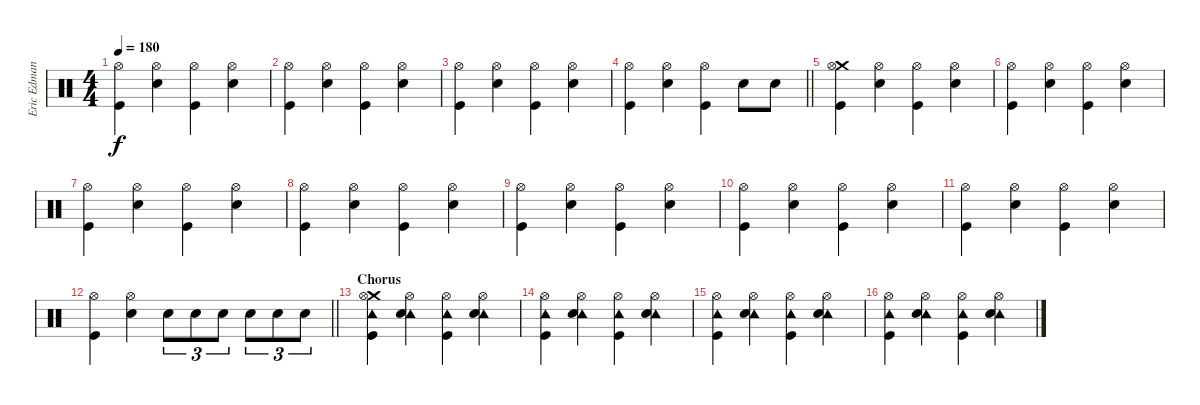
\track ("Eric Edman - Drums" "Eric Edman") {instrument percussion}
\staff {score}
\articulation defaults
\ts (4 4)
\tempo 180
\clef neutral
\ks c
("Hi-Hat (open)" "Kick (hit)").4{dy f} ("Hi-Hat (open)" "Snare (hit) 2").4 ("Hi-Hat (open)" "Kick (hit)").4 ("Hi-Hat (open)" "Snare (hit) 2").4 |
("Hi-Hat (open)" "Kick (hit)").4 ("Hi-Hat (open)" "Snare (hit) 2").4 ("Hi-Hat (open)" "Kick (hit)").4 ("Hi-Hat (open)" "Snare (hit) 2").4 |
("Hi-Hat (open)" "Kick (hit)").4 ("Hi-Hat (open)" "Snare (hit) 2").4 ("Hi-Hat (open)" "Kick (hit)").4 ("Hi-Hat (open)" "Snare (hit) 2").4 |
\barLineRight lightlight
("Hi-Hat (open)" "Kick (hit)").4 ("Hi-Hat (open)" "Snare (hit) 2").4 ("Hi-Hat (open)" "Kick (hit)").4 "Snare (hit) 2".8 "Snare (hit) 2".8 |
("Crash medium (hit)" "Hi-Hat (open)" "Kick (hit)").4 ("Hi-Hat (open)" "Snare (hit) 2").4 ("Hi-Hat (open)" "Kick (hit)").4 ("Hi-Hat (open)" "Snare (hit) 2").4 |
("Hi-Hat (open)" "Kick (hit)").4 ("Hi-Hat (open)" "Snare (hit) 2").4 ("Hi-Hat (open)" "Kick (hit)").4 ("Hi-Hat (open)" "Snare (hit) 2").4 |
("Hi-Hat (open)" "Kick (hit)").4 ("Hi-Hat (open)" "Snare (hit) 2").4 ("Hi-Hat (open)" "Kick (hit)").4 ("Hi-Hat (open)" "Snare (hit) 2").4 |
("Hi-Hat (open)" "Kick (hit)").4 ("Hi-Hat (open)" "Snare (hit) 2").4 ("Hi-Hat (open)" "Kick (hit)").4 ("Hi-Hat (open)" "Snare (hit) 2").4 |
("Hi-Hat (open)" "Kick (hit)").4 ("Hi-Hat (open)" "Snare (hit) 2").4 ("Hi-Hat (open)" "Kick (hit)").4 ("Hi-Hat (open)" "Snare (hit) 2").4 |
("Hi-Hat (open)" "Kick (hit)").4 ("Hi-Hat (open)" "Snare (hit) 2").4 ("Hi-Hat (open)" "Kick (hit)").4 ("Hi-Hat (open)" "Snare (hit) 2").4 |
("Hi-Hat (open)" "Kick (hit)").4 ("Hi-Hat (open)" "Snare (hit) 2").4 ("Hi-Hat (open)" "Kick (hit)").4 ("Hi-Hat (open)" "Snare (hit) 2").4 |
\barLineRight lightlight
("Hi-Hat (open)" "Kick (hit)").4 ("Hi-Hat (open)" "Snare (hit) 2").4 "Snare (hit) 2".8{tu (3 2)} "Snare (hit) 2".8{tu (3 2)} "Snare (hit) 2".8{tu (3 2)} "Snare (hit) 2".8{tu (3 2)} "Snare (hit) 2".8{tu (3 2)} "Snare (hit) 2".8{tu (3 2)} |
\section ("" "Chorus")
("Crash medium (hit)" "Tambourine (hit)" "Kick (hit)" "Hi-Hat (open)").4 ("Tambourine (hit)" "Snare (hit) 2" "Hi-Hat (open)").4 ("Tambourine (hit)" "Kick (hit)" "Hi-Hat (open)").4 ("Tambourine (hit)" "Snare (hit) 2" "Hi-Hat (open)").4 |
("Tambourine (hit)" "Kick (hit)" "Hi-Hat (open)").4 ("Tambourine (hit)" "Snare (hit) 2" "Hi-Hat (open)").4 ("Tambourine (hit)" "Kick (hit)" "Hi-Hat (open)").4 ("Tambourine (hit)" "Snare (hit) 2" "Hi-Hat (open)").4 |
("Tambourine (hit)" "Kick (hit)" "Hi-Hat (open)").4 ("Tambourine (hit)" "Snare (hit) 2" "Hi-Hat (open)").4 ("Tambourine (hit)" "Kick (hit)" "Hi-Hat (open)").4 ("Tambourine (hit)" "Snare (hit) 2" "Hi-Hat (open)").4 |
("Tambourine (hit)" "Kick (hit)" "Hi-Hat (open)").4 ("Tambourine (hit)" "Snare (hit) 2" "Hi-Hat (open)").4 ("Tambourine (hit)" "Kick (hit)" "Hi-Hat (open)").4 ("Tambourine (hit)" "Snare (hit) 2" "Hi-Hat (open)").4
